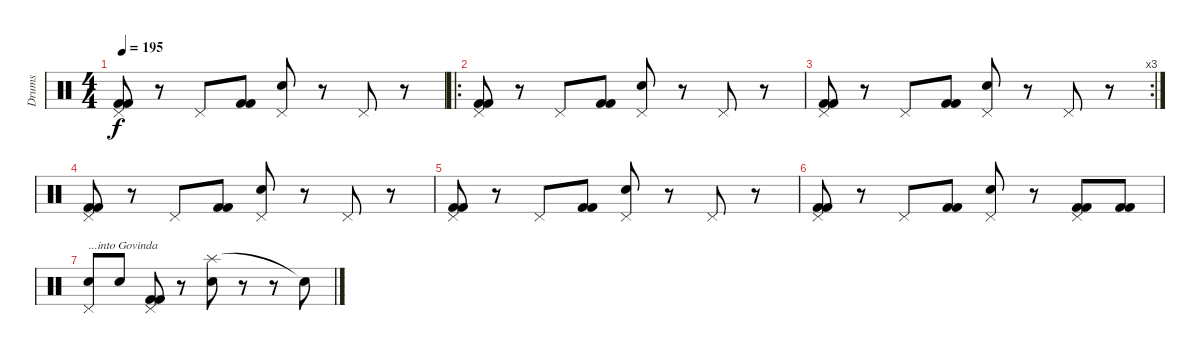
\track ("Drums" "Drums") {instrument percussion}
\staff {score}
\articulation defaults
\ts (4 4)
\tempo 195
\clef neutral
\ks c
("Pedal Hi-Hat (hit)" "Kick (hit) 2" "Kick (hit) 2").8{dy f} r.8 "Pedal Hi-Hat (hit)".8 ("Kick (hit) 2" "Kick (hit) 2").8 ("Pedal Hi-Hat (hit)" "Electric Snare (hit)").8 r.8 "Pedal Hi-Hat (hit)".8 r.8 |
\ro
("Pedal Hi-Hat (hit)" "Kick (hit) 2" "Kick (hit) 2").8 r.8 "Pedal Hi-Hat (hit)".8 ("Kick (hit) 2" "Kick (hit) 2").8 ("Pedal Hi-Hat (hit)" "Electric Snare (hit)").8 r.8 "Pedal Hi-Hat (hit)".8 r.8 |
\rc 3
("Pedal Hi-Hat (hit)" "Kick (hit) 2" "Kick (hit) 2").8 r.8 "Pedal Hi-Hat (hit)".8 ("Kick (hit) 2" "Kick (hit) 2").8 ("Pedal Hi-Hat (hit)" "Electric Snare (hit)").8 r.8 "Pedal Hi-Hat (hit)".8 r.8 |
("Pedal Hi-Hat (hit)" "Kick (hit) 2" "Kick (hit) 2").8 r.8 "Pedal Hi-Hat (hit)".8 ("Kick (hit) 2" "Kick (hit) 2").8 ("Pedal Hi-Hat (hit)" "Electric Snare (hit)").8 r.8 "Pedal Hi-Hat (hit)".8 r.8 |
("Pedal Hi-Hat (hit)" "Kick (hit) 2" "Kick (hit) 2").8 r.8 "Pedal Hi-Hat (hit)".8 ("Kick (hit) 2" "Kick (hit) 2").8 ("Pedal Hi-Hat (hit)" "Electric Snare (hit)").8 r.8 "Pedal Hi-Hat (hit)".8 r.8 |
("Pedal Hi-Hat (hit)" "Kick (hit) 2" "Kick (hit) 2").8 r.8 "Pedal Hi-Hat (hit)".8 ("Kick (hit) 2" "Kick (hit) 2").8 ("Pedal Hi-Hat (hit)" "Electric Snare (hit)").8 r.8 ("Pedal Hi-Hat (hit)" "Kick (hit) 2" "Kick (hit) 2").8 ("Kick (hit) 2" "Kick (hit) 2").8 |
("Pedal Hi-Hat (hit)" "Electric Snare (hit)").8{txt "...into Govinda"} "Electric Snare (hit)".8 ("Pedal Hi-Hat (hit)" "Kick (hit) 2" "Kick (hit) 2").8 r.8 ("Splash (hit)" "Electric Snare (hit)").8 r.8 r.8 "Snare (hit)"{t}.8
